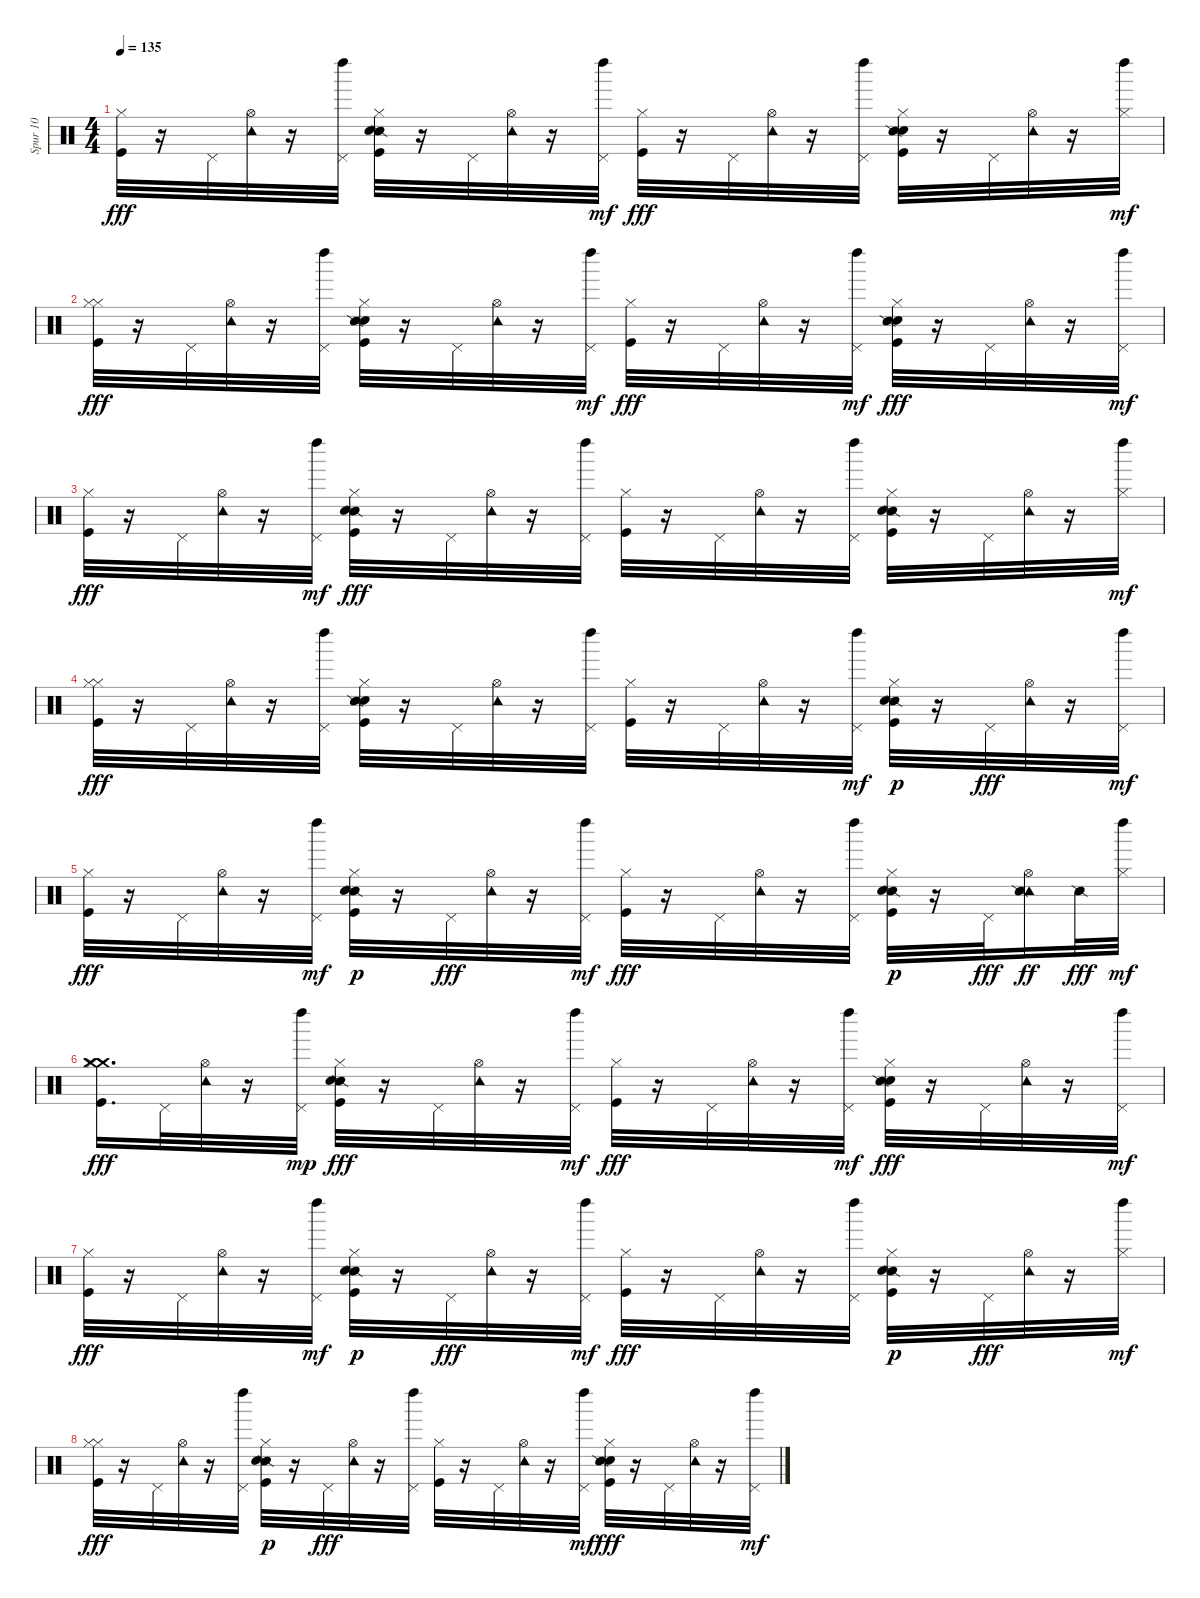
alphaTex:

\track ("Spur 10" "Spur 10") {instrument percussion}
\staff {score}
\articulation defaults
\ts (4 4)
\tempo 135
\clef neutral
\ks c
("Hi-Hat (closed)" "Kick (hit)").32{dy fff} r.16 "Pedal Hi-Hat (hit)".32 ("Tambourine (hit)" "Hi-Hat (open)").32 r.16 ("Left Maraca (hit)" "Pedal Hi-Hat (hit)").32 ("Snare (side stick) 2" "Hi-Hat (closed)" "Hand Clap (hit)" "Kick (hit)").32 r.16 "Pedal Hi-Hat (hit)".32 ("Hi-Hat (open)" "Tambourine (hit)").32 r.16 ("Pedal Hi-Hat (hit)" "Left Maraca (hit)").32{dy mf} ("Hi-Hat (closed)" "Kick (hit)").32{dy fff} r.16 "Pedal Hi-Hat (hit)".32 ("Hi-Hat (open)" "Tambourine (hit)").32 r.16 ("Left Maraca (hit)" "Pedal Hi-Hat (hit)").32 ("Hand Clap (hit)" "Kick (hit)" "Snare (side stick) 2" "Hi-Hat (closed)").32 r.16 "Pedal Hi-Hat (hit)".32 ("Hi-Hat (open)" "Tambourine (hit)").32 r.16 ("Left Maraca (hit)" "Hi-Hat (closed)").32{dy mf} |
("Hi-Hat (closed)" "Hi-Hat (closed)" "Kick (hit)").32{dy fff} r.16 "Pedal Hi-Hat (hit)".32 ("Tambourine (hit)" "Hi-Hat (open)").32 r.16 ("Left Maraca (hit)" "Pedal Hi-Hat (hit)").32 ("Hi-Hat (closed)" "Hand Clap (hit)" "Kick (hit)" "Snare (side stick) 2").32 r.16 "Pedal Hi-Hat (hit)".32 ("Hi-Hat (open)" "Tambourine (hit)").32 r.16 ("Pedal Hi-Hat (hit)" "Left Maraca (hit)").32{dy mf} ("Kick (hit)" "Hi-Hat (closed)").32{dy fff} r.16 "Pedal Hi-Hat (hit)".32 ("Tambourine (hit)" "Hi-Hat (open)").32 r.16 ("Pedal Hi-Hat (hit)" "Left Maraca (hit)").32{dy mf} ("Hi-Hat (closed)" "Hand Clap (hit)" "Snare (side stick) 2" "Kick (hit)").32{dy fff} r.16 "Pedal Hi-Hat (hit)".32 ("Tambourine (hit)" "Hi-Hat (open)").32 r.16 ("Left Maraca (hit)" "Pedal Hi-Hat (hit)").32{dy mf} |
("Hi-Hat (closed)" "Kick (hit)").32{dy fff} r.16 "Pedal Hi-Hat (hit)".32 ("Hi-Hat (open)" "Tambourine (hit)").32 r.16 ("Pedal Hi-Hat (hit)" "Left Maraca (hit)").32{dy mf} ("Kick (hit)" "Snare (side stick) 2" "Hand Clap (hit)" "Hi-Hat (closed)").32{dy fff} r.16 "Pedal Hi-Hat (hit)".32 ("Hi-Hat (open)" "Tambourine (hit)").32 r.16 ("Left Maraca (hit)" "Pedal Hi-Hat (hit)").32 ("Kick (hit)" "Hi-Hat (closed)").32 r.16 "Pedal Hi-Hat (hit)".32 ("Hi-Hat (open)" "Tambourine (hit)").32 r.16 ("Left Maraca (hit)" "Pedal Hi-Hat (hit)").32 ("Kick (hit)" "Snare (side stick) 2" "Hand Clap (hit)" "Hi-Hat (closed)").32 r.16 "Pedal Hi-Hat (hit)".32 ("Tambourine (hit)" "Hi-Hat (open)").32 r.16 ("Left Maraca (hit)" "Hi-Hat (closed)").32{dy mf} |
("Hi-Hat (closed)" "Kick (hit)" "Hi-Hat (closed)").32{dy fff} r.16 "Pedal Hi-Hat (hit)".32 ("Tambourine (hit)" "Hi-Hat (open)").32 r.16 ("Left Maraca (hit)" "Pedal Hi-Hat (hit)").32 ("Hand Clap (hit)" "Kick (hit)" "Snare (side stick) 2" "Hi-Hat (closed)").32 r.16 "Pedal Hi-Hat (hit)".32 ("Tambourine (hit)" "Hi-Hat (open)").32 r.16 ("Left Maraca (hit)" "Pedal Hi-Hat (hit)").32 ("Kick (hit)" "Hi-Hat (closed)").32 r.16 "Pedal Hi-Hat (hit)".32 ("Hi-Hat (open)" "Tambourine (hit)").32 r.16 ("Pedal Hi-Hat (hit)" "Left Maraca (hit)").32{dy mf} ("Kick (hit)" "Snare (side stick) 2" "Hi-Hat (closed)" "Hand Clap (hit)").32{dy p} r.16 "Pedal Hi-Hat (hit)".32{dy fff} ("Hi-Hat (open)" "Tambourine (hit)").32 r.16 ("Left Maraca (hit)" "Pedal Hi-Hat (hit)").32{dy mf} |
("Hi-Hat (closed)" "Kick (hit)").32{dy fff} r.16 "Pedal Hi-Hat (hit)".32 ("Hi-Hat (open)" "Tambourine (hit)").32 r.16 ("Pedal Hi-Hat (hit)" "Left Maraca (hit)").32{dy mf} ("Snare (side stick) 2" "Hi-Hat (closed)" "Kick (hit)" "Hand Clap (hit)").32{dy p} r.16 "Pedal Hi-Hat (hit)".32{dy fff} ("Tambourine (hit)" "Hi-Hat (open)").32 r.16 ("Pedal Hi-Hat (hit)" "Left Maraca (hit)").32{dy mf} ("Hi-Hat (closed)" "Kick (hit)").32{dy fff} r.16 "Pedal Hi-Hat (hit)".32 ("Hi-Hat (open)" "Tambourine (hit)").32 r.16 ("Left Maraca (hit)" "Pedal Hi-Hat (hit)").32 ("Snare (side stick) 2" "Hi-Hat (closed)" "Kick (hit)" "Hand Clap (hit)").32{dy p} r.16 "Pedal Hi-Hat (hit)".32{dy fff} ("Hi-Hat (open)" "Tambourine (hit)" "Snare (side stick) 2").16{dy ff} "Snare (side stick) 2".32{dy fff} ("Hi-Hat (closed)" "Left Maraca (hit)").32{dy mf} |
("Crash medium (hit)" "Crash medium (hit)" "Kick (hit)" "Hi-Hat (closed)").16{d dy fff} "Pedal Hi-Hat (hit)".32 ("Tambourine (hit)" "Hi-Hat (open)").32 r.16 ("Pedal Hi-Hat (hit)" "Left Maraca (hit)").32{dy mp} ("Snare (side stick) 2" "Hand Clap (hit)" "Kick (hit)" "Hi-Hat (closed)").32{dy fff} r.16 "Pedal Hi-Hat (hit)".32 ("Tambourine (hit)" "Hi-Hat (open)").32 r.16 ("Pedal Hi-Hat (hit)" "Left Maraca (hit)").32{dy mf} ("Hi-Hat (closed)" "Kick (hit)").32{dy fff} r.16 "Pedal Hi-Hat (hit)".32 ("Tambourine (hit)" "Hi-Hat (open)").32 r.16 ("Pedal Hi-Hat (hit)" "Left Maraca (hit)").32{dy mf} ("Kick (hit)" "Hand Clap (hit)" "Snare (side stick) 2" "Hi-Hat (closed)").32{dy fff} r.16 "Pedal Hi-Hat (hit)".32 ("Hi-Hat (open)" "Tambourine (hit)").32 r.16 ("Pedal Hi-Hat (hit)" "Left Maraca (hit)").32{dy mf} |
("Kick (hit)" "Hi-Hat (closed)").32{dy fff} r.16 "Pedal Hi-Hat (hit)".32 ("Hi-Hat (open)" "Tambourine (hit)").32 r.16 ("Pedal Hi-Hat (hit)" "Left Maraca (hit)").32{dy mf} ("Kick (hit)" "Hi-Hat (closed)" "Snare (side stick) 2" "Hand Clap (hit)").32{dy p} r.16 "Pedal Hi-Hat (hit)".32{dy fff} ("Tambourine (hit)" "Hi-Hat (open)").32 r.16 ("Pedal Hi-Hat (hit)" "Left Maraca (hit)").32{dy mf} ("Kick (hit)" "Hi-Hat (closed)").32{dy fff} r.16 "Pedal Hi-Hat (hit)".32 ("Tambourine (hit)" "Hi-Hat (open)").32 r.16 ("Left Maraca (hit)" "Pedal Hi-Hat (hit)").32 ("Hi-Hat (closed)" "Snare (side stick) 2" "Kick (hit)" "Hand Clap (hit)").32{dy p} r.16 "Pedal Hi-Hat (hit)".32{dy fff} ("Tambourine (hit)" "Hi-Hat (open)").32 r.16 ("Hi-Hat (closed)" "Left Maraca (hit)").32{dy mf} |
("Hi-Hat (closed)" "Kick (hit)" "Hi-Hat (closed)").32{dy fff} r.16 "Pedal Hi-Hat (hit)".32 ("Hi-Hat (open)" "Tambourine (hit)").32 r.16 ("Left Maraca (hit)" "Pedal Hi-Hat (hit)").32 ("Kick (hit)" "Hi-Hat (closed)" "Snare (side stick) 2" "Hand Clap (hit)").32{dy p} r.16 "Pedal Hi-Hat (hit)".32{dy fff} ("Hi-Hat (open)" "Tambourine (hit)").32 r.16 ("Left Maraca (hit)" "Pedal Hi-Hat (hit)").32 ("Hi-Hat (closed)" "Kick (hit)").32 r.16 "Pedal Hi-Hat (hit)".32 ("Tambourine (hit)" "Hi-Hat (open)").32 r.16 ("Left Maraca (hit)" "Pedal Hi-Hat (hit)").32{dy mf} ("Hand Clap (hit)" "Kick (hit)" "Hi-Hat (closed)" "Snare (side stick) 2").32{dy fff} r.16 "Pedal Hi-Hat (hit)".32 ("Hi-Hat (open)" "Tambourine (hit)").32 r.16 ("Left Maraca (hit)" "Pedal Hi-Hat (hit)").32{dy mf}
